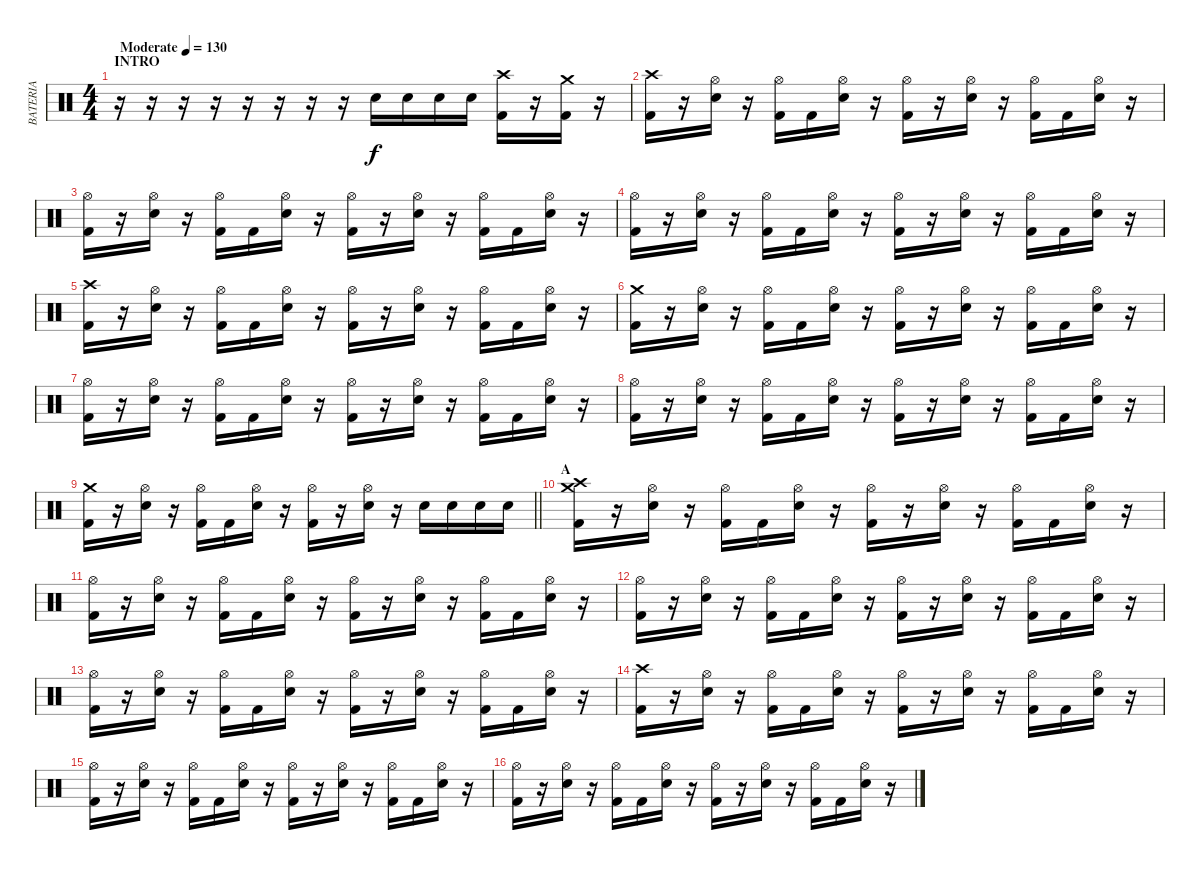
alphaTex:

\track ("BATERIA" "BATERIA") {instrument percussion}
\staff {score}
\articulation defaults
\ts (4 4)
\section ("" "INTRO")
\tempo (130 "Moderate")
\clef neutral
\ks c
r.16{dy f} r.16 r.16 r.16 r.16 r.16 r.16 r.16 "Electric Snare (hit)".16 "Electric Snare (hit)".16 "Electric Snare (hit)".16 "Electric Snare (hit)".16 ("Kick (hit) 2" "Crash high (hit)").16 r.16 ("Kick (hit) 2" "Crash medium (hit)").16 r.16 |
("Kick (hit) 2" "Crash high (hit)").16 r.16 ("Electric Snare (hit)" "Hi-Hat (open)").16 r.16 ("Kick (hit) 2" "Hi-Hat (open)").16 "Kick (hit) 2".16 ("Electric Snare (hit)" "Hi-Hat (open)").16 r.16 ("Kick (hit) 2" "Hi-Hat (open)").16 r.16 ("Electric Snare (hit)" "Hi-Hat (open)").16 r.16 ("Kick (hit) 2" "Hi-Hat (open)").16 "Kick (hit) 2".16 ("Electric Snare (hit)" "Hi-Hat (open)").16 r.16 |
("Kick (hit) 2" "Hi-Hat (open)").16 r.16 ("Electric Snare (hit)" "Hi-Hat (open)").16 r.16 ("Kick (hit) 2" "Hi-Hat (open)").16 "Kick (hit) 2".16 ("Electric Snare (hit)" "Hi-Hat (open)").16 r.16 ("Kick (hit) 2" "Hi-Hat (open)").16 r.16 ("Electric Snare (hit)" "Hi-Hat (open)").16 r.16 ("Kick (hit) 2" "Hi-Hat (open)").16 "Kick (hit) 2".16 ("Electric Snare (hit)" "Hi-Hat (open)").16 r.16 |
("Kick (hit) 2" "Hi-Hat (open)").16 r.16 ("Electric Snare (hit)" "Hi-Hat (open)").16 r.16 ("Kick (hit) 2" "Hi-Hat (open)").16 "Kick (hit) 2".16 ("Electric Snare (hit)" "Hi-Hat (open)").16 r.16 ("Kick (hit) 2" "Hi-Hat (open)").16 r.16 ("Electric Snare (hit)" "Hi-Hat (open)").16 r.16 ("Kick (hit) 2" "Hi-Hat (open)").16 "Kick (hit) 2".16 ("Electric Snare (hit)" "Hi-Hat (open)").16 r.16 |
("Kick (hit) 2" "Crash high (hit)").16 r.16 ("Electric Snare (hit)" "Hi-Hat (open)").16 r.16 ("Kick (hit) 2" "Hi-Hat (open)").16 "Kick (hit) 2".16 ("Electric Snare (hit)" "Hi-Hat (open)").16 r.16 ("Kick (hit) 2" "Hi-Hat (open)").16 r.16 ("Electric Snare (hit)" "Hi-Hat (open)").16 r.16 ("Kick (hit) 2" "Hi-Hat (open)").16 "Kick (hit) 2".16 ("Electric Snare (hit)" "Hi-Hat (open)").16 r.16 |
("Kick (hit) 2" "Crash medium (hit)").16 r.16 ("Electric Snare (hit)" "Hi-Hat (open)").16 r.16 ("Kick (hit) 2" "Hi-Hat (open)").16 "Kick (hit) 2".16 ("Electric Snare (hit)" "Hi-Hat (open)").16 r.16 ("Kick (hit) 2" "Hi-Hat (open)").16 r.16 ("Electric Snare (hit)" "Hi-Hat (open)").16 r.16 ("Kick (hit) 2" "Hi-Hat (open)").16 "Kick (hit) 2".16 ("Electric Snare (hit)" "Hi-Hat (open)").16 r.16 |
("Kick (hit) 2" "Hi-Hat (open)").16 r.16 ("Electric Snare (hit)" "Hi-Hat (open)").16 r.16 ("Kick (hit) 2" "Hi-Hat (open)").16 "Kick (hit) 2".16 ("Electric Snare (hit)" "Hi-Hat (open)").16 r.16 ("Kick (hit) 2" "Hi-Hat (open)").16 r.16 ("Electric Snare (hit)" "Hi-Hat (open)").16 r.16 ("Kick (hit) 2" "Hi-Hat (open)").16 "Kick (hit) 2".16 ("Electric Snare (hit)" "Hi-Hat (open)").16 r.16 |
("Kick (hit) 2" "Hi-Hat (open)").16 r.16 ("Electric Snare (hit)" "Hi-Hat (open)").16 r.16 ("Kick (hit) 2" "Hi-Hat (open)").16 "Kick (hit) 2".16 ("Electric Snare (hit)" "Hi-Hat (open)").16 r.16 ("Kick (hit) 2" "Hi-Hat (open)").16 r.16 ("Electric Snare (hit)" "Hi-Hat (open)").16 r.16 ("Kick (hit) 2" "Hi-Hat (open)").16 "Kick (hit) 2".16 ("Electric Snare (hit)" "Hi-Hat (open)").16 r.16 |
\barLineRight lightlight
("Kick (hit) 2" "Crash medium (hit)").16 r.16 ("Electric Snare (hit)" "Hi-Hat (open)").16 r.16 ("Kick (hit) 2" "Hi-Hat (open)").16 "Kick (hit) 2".16 ("Electric Snare (hit)" "Hi-Hat (open)").16 r.16 ("Kick (hit) 2" "Hi-Hat (open)").16 r.16 ("Electric Snare (hit)" "Hi-Hat (open)").16 r.16 "Electric Snare (hit)".16 "Electric Snare (hit)".16 "Electric Snare (hit)".16 "Electric Snare (hit)".16 |
\section ("" "A")
("Kick (hit) 2" "Crash medium (hit)" "Crash high (hit)").16 r.16 ("Electric Snare (hit)" "Hi-Hat (open)").16 r.16 ("Kick (hit) 2" "Hi-Hat (open)").16 "Kick (hit) 2".16 ("Electric Snare (hit)" "Hi-Hat (open)").16 r.16 ("Kick (hit) 2" "Hi-Hat (open)").16 r.16 ("Electric Snare (hit)" "Hi-Hat (open)").16 r.16 ("Kick (hit) 2" "Hi-Hat (open)").16 "Kick (hit) 2".16 ("Electric Snare (hit)" "Hi-Hat (open)").16 r.16 |
("Kick (hit) 2" "Hi-Hat (open)").16 r.16 ("Electric Snare (hit)" "Hi-Hat (open)").16 r.16 ("Kick (hit) 2" "Hi-Hat (open)").16 "Kick (hit) 2".16 ("Electric Snare (hit)" "Hi-Hat (open)").16 r.16 ("Kick (hit) 2" "Hi-Hat (open)").16 r.16 ("Electric Snare (hit)" "Hi-Hat (open)").16 r.16 ("Kick (hit) 2" "Hi-Hat (open)").16 "Kick (hit) 2".16 ("Electric Snare (hit)" "Hi-Hat (open)").16 r.16 |
("Kick (hit) 2" "Hi-Hat (open)").16 r.16 ("Electric Snare (hit)" "Hi-Hat (open)").16 r.16 ("Kick (hit) 2" "Hi-Hat (open)").16 "Kick (hit) 2".16 ("Electric Snare (hit)" "Hi-Hat (open)").16 r.16 ("Kick (hit) 2" "Hi-Hat (open)").16 r.16 ("Electric Snare (hit)" "Hi-Hat (open)").16 r.16 ("Kick (hit) 2" "Hi-Hat (open)").16 "Kick (hit) 2".16 ("Electric Snare (hit)" "Hi-Hat (open)").16 r.16 |
("Kick (hit) 2" "Hi-Hat (open)").16 r.16 ("Electric Snare (hit)" "Hi-Hat (open)").16 r.16 ("Kick (hit) 2" "Hi-Hat (open)").16 "Kick (hit) 2".16 ("Electric Snare (hit)" "Hi-Hat (open)").16 r.16 ("Kick (hit) 2" "Hi-Hat (open)").16 r.16 ("Electric Snare (hit)" "Hi-Hat (open)").16 r.16 ("Kick (hit) 2" "Hi-Hat (open)").16 "Kick (hit) 2".16 ("Electric Snare (hit)" "Hi-Hat (open)").16 r.16 |
("Kick (hit) 2" "Crash high (hit)").16 r.16 ("Electric Snare (hit)" "Hi-Hat (open)").16 r.16 ("Kick (hit) 2" "Hi-Hat (open)").16 "Kick (hit) 2".16 ("Electric Snare (hit)" "Hi-Hat (open)").16 r.16 ("Kick (hit) 2" "Hi-Hat (open)").16 r.16 ("Electric Snare (hit)" "Hi-Hat (open)").16 r.16 ("Kick (hit) 2" "Hi-Hat (open)").16 "Kick (hit) 2".16 ("Electric Snare (hit)" "Hi-Hat (open)").16 r.16 |
("Kick (hit) 2" "Hi-Hat (open)").16 r.16 ("Electric Snare (hit)" "Hi-Hat (open)").16 r.16 ("Kick (hit) 2" "Hi-Hat (open)").16 "Kick (hit) 2".16 ("Electric Snare (hit)" "Hi-Hat (open)").16 r.16 ("Kick (hit) 2" "Hi-Hat (open)").16 r.16 ("Electric Snare (hit)" "Hi-Hat (open)").16 r.16 ("Kick (hit) 2" "Hi-Hat (open)").16 "Kick (hit) 2".16 ("Electric Snare (hit)" "Hi-Hat (open)").16 r.16 |
("Kick (hit) 2" "Hi-Hat (open)").16 r.16 ("Electric Snare (hit)" "Hi-Hat (open)").16 r.16 ("Kick (hit) 2" "Hi-Hat (open)").16 "Kick (hit) 2".16 ("Electric Snare (hit)" "Hi-Hat (open)").16 r.16 ("Kick (hit) 2" "Hi-Hat (open)").16 r.16 ("Electric Snare (hit)" "Hi-Hat (open)").16 r.16 ("Kick (hit) 2" "Hi-Hat (open)").16 "Kick (hit) 2".16 ("Electric Snare (hit)" "Hi-Hat (open)").16 r.16
